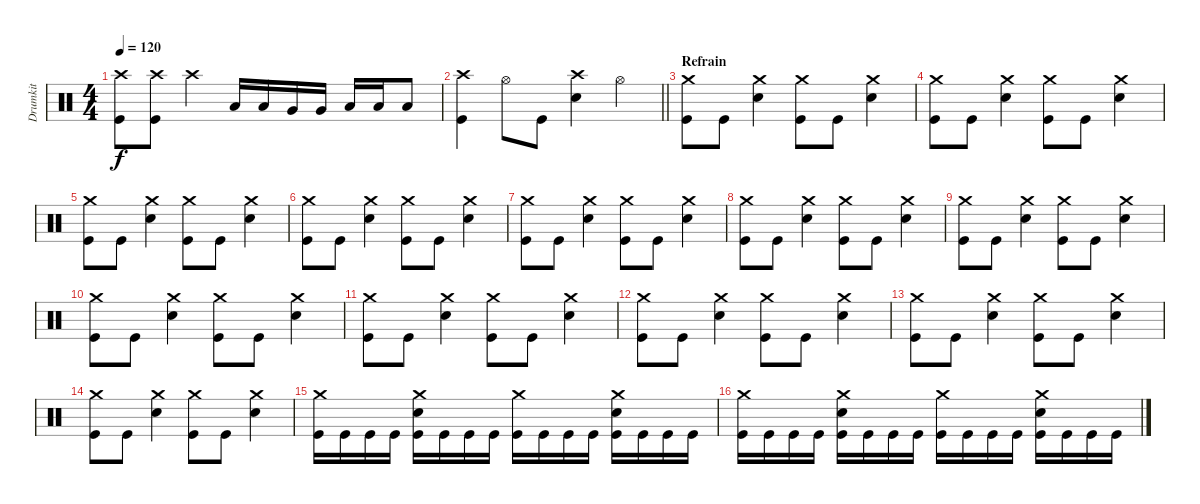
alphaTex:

\track ("Drumkit" "Drumkit") {instrument percussion}
\staff {score}
\articulation defaults
\ts (4 4)
\tempo 120
\clef neutral
\ks c
("Crash high (hit)" "Kick (hit)").8{dy f} ("Crash high (hit)" "Kick (hit)").8 "Crash high (hit)".4 "Low Tom (hit)".16 "Low Tom (hit)".16 "Very Low Tom (hit)".16 "Very Low Tom (hit)".16 "Low Floor Tom (hit)".16 "Low Floor Tom (hit)".16 "Low Floor Tom (hit)".8 |
\barLineRight lightlight
("Crash high (hit)" "Kick (hit)").4 "Hi-Hat (open)".8 "Kick (hit)".8 ("Crash high (hit)" "Snare (hit) 2").4 "Hi-Hat (open)".4 |
\section ("" "Refrain")
("Crash medium (hit)" "Kick (hit)").8 "Kick (hit)".8 ("Crash medium (hit)" "Snare (hit) 2").4 ("Crash medium (hit)" "Kick (hit)").8 "Kick (hit)".8 ("Crash medium (hit)" "Snare (hit) 2").4 |
("Crash medium (hit)" "Kick (hit)").8 "Kick (hit)".8 ("Crash medium (hit)" "Snare (hit) 2").4 ("Crash medium (hit)" "Kick (hit)").8 "Kick (hit)".8 ("Crash medium (hit)" "Snare (hit) 2").4 |
("Crash medium (hit)" "Kick (hit)").8 "Kick (hit)".8 ("Crash medium (hit)" "Snare (hit) 2").4 ("Crash medium (hit)" "Kick (hit)").8 "Kick (hit)".8 ("Crash medium (hit)" "Snare (hit) 2").4 |
("Crash medium (hit)" "Kick (hit)").8 "Kick (hit)".8 ("Crash medium (hit)" "Snare (hit) 2").4 ("Crash medium (hit)" "Kick (hit)").8 "Kick (hit)".8 ("Crash medium (hit)" "Snare (hit) 2").4 |
("Crash medium (hit)" "Kick (hit)").8 "Kick (hit)".8 ("Crash medium (hit)" "Snare (hit) 2").4 ("Crash medium (hit)" "Kick (hit)").8 "Kick (hit)".8 ("Crash medium (hit)" "Snare (hit) 2").4 |
("Crash medium (hit)" "Kick (hit)").8 "Kick (hit)".8 ("Crash medium (hit)" "Snare (hit) 2").4 ("Crash medium (hit)" "Kick (hit)").8 "Kick (hit)".8 ("Crash medium (hit)" "Snare (hit) 2").4 |
("Crash medium (hit)" "Kick (hit)").8 "Kick (hit)".8 ("Crash medium (hit)" "Snare (hit) 2").4 ("Crash medium (hit)" "Kick (hit)").8 "Kick (hit)".8 ("Crash medium (hit)" "Snare (hit) 2").4 |
("Crash medium (hit)" "Kick (hit)").8 "Kick (hit)".8 ("Crash medium (hit)" "Snare (hit) 2").4 ("Crash medium (hit)" "Kick (hit)").8 "Kick (hit)".8 ("Crash medium (hit)" "Snare (hit) 2").4 |
("Crash medium (hit)" "Kick (hit)").8 "Kick (hit)".8 ("Crash medium (hit)" "Snare (hit) 2").4 ("Crash medium (hit)" "Kick (hit)").8 "Kick (hit)".8 ("Crash medium (hit)" "Snare (hit) 2").4 |
("Crash medium (hit)" "Kick (hit)").8 "Kick (hit)".8 ("Crash medium (hit)" "Snare (hit) 2").4 ("Crash medium (hit)" "Kick (hit)").8 "Kick (hit)".8 ("Crash medium (hit)" "Snare (hit) 2").4 |
("Crash medium (hit)" "Kick (hit)").8 "Kick (hit)".8 ("Crash medium (hit)" "Snare (hit) 2").4 ("Crash medium (hit)" "Kick (hit)").8 "Kick (hit)".8 ("Crash medium (hit)" "Snare (hit) 2").4 |
("Crash medium (hit)" "Kick (hit)").8 "Kick (hit)".8 ("Crash medium (hit)" "Snare (hit) 2").4 ("Crash medium (hit)" "Kick (hit)").8 "Kick (hit)".8 ("Crash medium (hit)" "Snare (hit) 2").4 |
("Crash medium (hit)" "Kick (hit)").16 "Kick (hit)".16 "Kick (hit)".16 "Kick (hit)".16 ("Crash medium (hit)" "Snare (hit) 2" "Kick (hit)").16 "Kick (hit)".16 "Kick (hit)".16 "Kick (hit)".16 ("Crash medium (hit)" "Kick (hit)").16 "Kick (hit)".16 "Kick (hit)".16 "Kick (hit)".16 ("Crash medium (hit)" "Snare (hit) 2" "Kick (hit)").16 "Kick (hit)".16 "Kick (hit)".16 "Kick (hit)".16 |
("Crash medium (hit)" "Kick (hit)").16 "Kick (hit)".16 "Kick (hit)".16 "Kick (hit)".16 ("Crash medium (hit)" "Snare (hit) 2" "Kick (hit)").16 "Kick (hit)".16 "Kick (hit)".16 "Kick (hit)".16 ("Crash medium (hit)" "Kick (hit)").16 "Kick (hit)".16 "Kick (hit)".16 "Kick (hit)".16 ("Crash medium (hit)" "Snare (hit) 2" "Kick (hit)").16 "Kick (hit)".16 "Kick (hit)".16 "Kick (hit)".16
